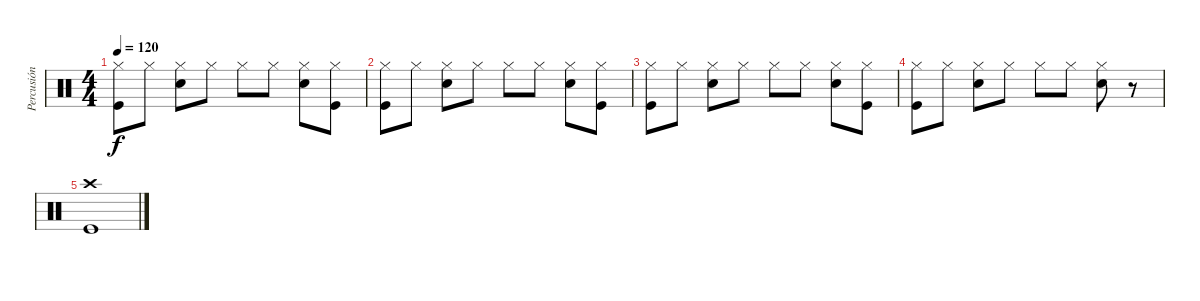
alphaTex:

\track ("Percusión" "Percusión") {instrument percussion}
\staff {score}
\articulation defaults
\ts (4 4)
\tempo 120
\clef neutral
\ks c
("Hi-Hat (closed)" "Kick (hit)").8{dy f} "Hi-Hat (closed)".8 ("Hi-Hat (closed)" "Snare (hit) 2").8 "Hi-Hat (closed)".8 "Hi-Hat (closed)".8 "Hi-Hat (closed)".8 ("Hi-Hat (closed)" "Snare (hit) 2").8 ("Hi-Hat (closed)" "Kick (hit)").8 |
("Hi-Hat (closed)" "Kick (hit)").8 "Hi-Hat (closed)".8 ("Hi-Hat (closed)" "Snare (hit) 2").8 "Hi-Hat (closed)".8 "Hi-Hat (closed)".8 "Hi-Hat (closed)".8 ("Hi-Hat (closed)" "Snare (hit) 2").8 ("Hi-Hat (closed)" "Kick (hit)").8 |
("Hi-Hat (closed)" "Kick (hit)").8 "Hi-Hat (closed)".8 ("Hi-Hat (closed)" "Snare (hit) 2").8 "Hi-Hat (closed)".8 "Hi-Hat (closed)".8 "Hi-Hat (closed)".8 ("Hi-Hat (closed)" "Snare (hit) 2").8 ("Hi-Hat (closed)" "Kick (hit)").8 |
("Hi-Hat (closed)" "Kick (hit)").8 "Hi-Hat (closed)".8 ("Hi-Hat (closed)" "Snare (hit) 2").8 "Hi-Hat (closed)".8 "Hi-Hat (closed)".8 "Hi-Hat (closed)".8 ("Hi-Hat (closed)" "Snare (hit) 2").8 r.8 |
("Crash high (hit)" "Kick (hit)").1
